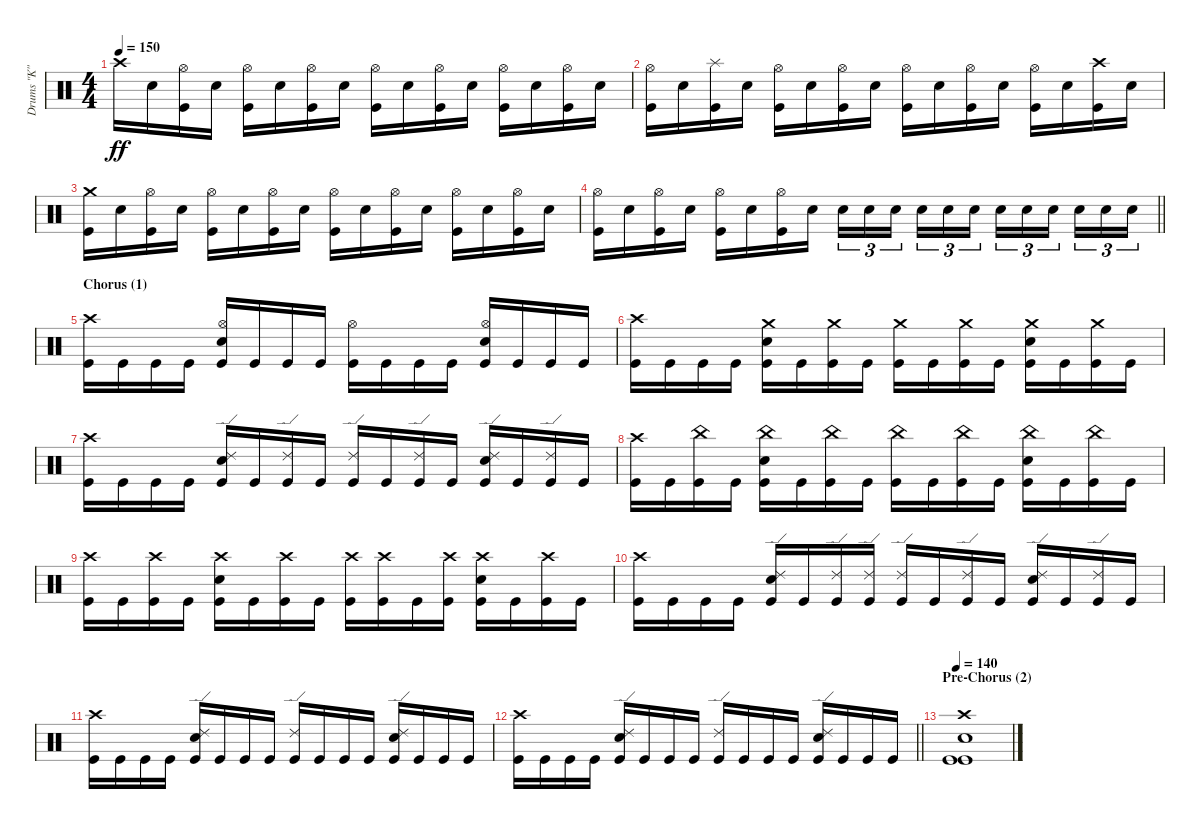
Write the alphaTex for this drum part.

\track ("Drums \"K\"" "Drums \"K\"") {instrument percussion}
\staff {score}
\articulation defaults
\ts (4 4)
\tempo 150
\clef neutral
\ks c "Crash high (hit)".16{dy ff} "Snare (hit) 2".16
("Hi-Hat (open)" "Kick (hit)").16 "Snare (hit) 2".16 ("Hi-Hat (open)" "Kick (hit)").16 "Snare (hit) 2".16 ("Hi-Hat (open)" "Kick (hit)").16 "Snare (hit) 2".16 ("Hi-Hat (open)" "Kick (hit)").16 "Snare (hit) 2".16 ("Hi-Hat (open)" "Kick (hit)").16 "Snare (hit) 2".16 ("Hi-Hat (open)" "Kick (hit)").16 "Snare (hit) 2".16 ("Hi-Hat (open)" "Kick (hit)").16 "Snare (hit) 2".16 |
("Hi-Hat (open)" "Kick (hit)").16 "Snare (hit) 2".16 ("Splash (hit)" "Kick (hit)").16 "Snare (hit) 2".16 ("Hi-Hat (open)" "Kick (hit)").16 "Snare (hit) 2".16 ("Hi-Hat (open)" "Kick (hit)").16 "Snare (hit) 2".16 ("Hi-Hat (open)" "Kick (hit)").16 "Snare (hit) 2".16 ("Hi-Hat (open)" "Kick (hit)").16 "Snare (hit) 2".16 ("Hi-Hat (open)" "Kick (hit)").16 "Snare (hit) 2".16 ("Crash high (hit)" "Kick (hit)").16 "Snare (hit) 2".16 |
("Crash medium (hit)" "Kick (hit)").16 "Snare (hit) 2".16 ("Hi-Hat (open)" "Kick (hit)").16 "Snare (hit) 2".16 ("Hi-Hat (open)" "Kick (hit)").16 "Snare (hit) 2".16 ("Hi-Hat (open)" "Kick (hit)").16 "Snare (hit) 2".16 ("Hi-Hat (open)" "Kick (hit)").16 "Snare (hit) 2".16 ("Hi-Hat (open)" "Kick (hit)").16 "Snare (hit) 2".16 ("Hi-Hat (open)" "Kick (hit)").16 "Snare (hit) 2".16 ("Hi-Hat (open)" "Kick (hit)").16 "Snare (hit) 2".16 |
\barLineRight lightlight
("Hi-Hat (open)" "Kick (hit)").16 "Snare (hit) 2".16 ("Hi-Hat (open)" "Kick (hit)").16 "Snare (hit) 2".16 ("Hi-Hat (open)" "Kick (hit)").16 "Snare (hit) 2".16 ("Hi-Hat (open)" "Kick (hit)").16 "Snare (hit) 2".16 "Snare (hit) 2".16{tu (3 2)} "Snare (hit) 2".16{tu (3 2)} "Snare (hit) 2".16{tu (3 2) beam splitsecondary} "Snare (hit) 2".16{tu (3 2)} "Snare (hit) 2".16{tu (3 2)} "Snare (hit) 2".16{tu (3 2)} "Snare (hit) 2".16{tu (3 2)} "Snare (hit) 2".16{tu (3 2)} "Snare (hit) 2".16{tu (3 2) beam splitsecondary} "Snare (hit) 2".16{tu (3 2)} "Snare (hit) 2".16{tu (3 2)} "Snare (hit) 2".16{tu (3 2)} |
\section ("" "Chorus (1)")
("Crash high (hit)" "Kick (hit)").16 "Kick (hit)".16 "Kick (hit)".16 "Kick (hit)".16 ("Hi-Hat (open)" "Snare (hit) 2" "Kick (hit)").16 "Kick (hit)".16 "Kick (hit)".16 "Kick (hit)".16 ("Hi-Hat (open)" "Kick (hit)").16 "Kick (hit)".16 "Kick (hit)".16 "Kick (hit)".16 ("Hi-Hat (open)" "Snare (hit) 2" "Kick (hit)").16 "Kick (hit)".16 "Kick (hit)".16 "Kick (hit)".16 |
("Crash high (hit)" "Kick (hit)").16 "Kick (hit)".16 "Kick (hit)".16 "Kick (hit)".16 ("Crash medium (hit)" "Snare (hit) 2" "Kick (hit)").16 "Kick (hit)".16 ("Crash medium (hit)" "Kick (hit)").16 "Kick (hit)".16 ("Crash medium (hit)" "Kick (hit)").16 "Kick (hit)".16 ("Crash medium (hit)" "Kick (hit)").16 "Kick (hit)".16 ("Crash medium (hit)" "Snare (hit) 2" "Kick (hit)").16 "Kick (hit)".16 ("Crash medium (hit)" "Kick (hit)").16 "Kick (hit)".16 |
("Crash high (hit)" "Kick (hit)").16 "Kick (hit)".16 "Kick (hit)".16 "Kick (hit)".16 ("Ride (edge) 2" "Snare (hit) 2" "Kick (hit)").16 "Kick (hit)".16 ("Ride (edge) 2" "Kick (hit)").16 "Kick (hit)".16 ("Ride (edge) 2" "Kick (hit)").16 "Kick (hit)".16 ("Ride (edge) 2" "Kick (hit)").16 "Kick (hit)".16 ("Ride (edge) 2" "Snare (hit) 2" "Kick (hit)").16 "Kick (hit)".16 ("Ride (edge) 2" "Kick (hit)").16 "Kick (hit)".16 |
("Crash high (hit)" "Kick (hit)").16 "Kick (hit)".16 ("China (hit)" "Kick (hit)").16 "Kick (hit)".16 ("China (hit)" "Snare (hit) 2" "Kick (hit)").16 "Kick (hit)".16 ("China (hit)" "Kick (hit)").16 "Kick (hit)".16 ("China (hit)" "Kick (hit)").16 "Kick (hit)".16 ("China (hit)" "Kick (hit)").16 "Kick (hit)".16 ("China (hit)" "Snare (hit) 2" "Kick (hit)").16 "Kick (hit)".16 ("China (hit)" "Kick (hit)").16 "Kick (hit)".16 |
("Crash high (hit)" "Kick (hit)").16 "Kick (hit)".16 ("Crash high (hit)" "Kick (hit)").16 "Kick (hit)".16 ("Crash high (hit)" "Snare (hit) 2" "Kick (hit)").16 "Kick (hit)".16 ("Crash high (hit)" "Kick (hit)").16 "Kick (hit)".16 ("Crash high (hit)" "Kick (hit)").16 ("Crash high (hit)" "Kick (hit)").16 "Kick (hit)".16 ("Crash high (hit)" "Kick (hit)").16 ("Crash high (hit)" "Snare (hit) 2" "Kick (hit)").16 "Kick (hit)".16 ("Crash high (hit)" "Kick (hit)").16 "Kick (hit)".16 |
("Crash high (hit)" "Kick (hit)").16 "Kick (hit)".16 "Kick (hit)".16 "Kick (hit)".16 ("Ride (edge) 2" "Snare (hit) 2" "Kick (hit)").16 "Kick (hit)".16 ("Ride (edge) 2" "Kick (hit)").16 ("Ride (edge) 2" "Kick (hit)").16 ("Ride (edge) 2" "Kick (hit)").16 "Kick (hit)".16 ("Ride (edge) 2" "Kick (hit)").16 "Kick (hit)".16 ("Ride (edge) 2" "Snare (hit) 2" "Kick (hit)").16 "Kick (hit)".16 ("Ride (edge) 2" "Kick (hit)").16 "Kick (hit)".16 |
("Crash high (hit)" "Kick (hit)").16 "Kick (hit)".16 "Kick (hit)".16 "Kick (hit)".16 ("Ride (edge) 2" "Snare (hit) 2" "Kick (hit)").16 "Kick (hit)".16 "Kick (hit)".16 "Kick (hit)".16 ("Ride (edge) 2" "Kick (hit)").16 "Kick (hit)".16 "Kick (hit)".16 "Kick (hit)".16 ("Ride (edge) 2" "Snare (hit) 2" "Kick (hit)").16 "Kick (hit)".16 "Kick (hit)".16 "Kick (hit)".16 |
\barLineRight lightlight
("Crash high (hit)" "Kick (hit)").16 "Kick (hit)".16 "Kick (hit)".16 "Kick (hit)".16 ("Ride (edge) 2" "Snare (hit) 2" "Kick (hit)").16 "Kick (hit)".16 "Kick (hit)".16 "Kick (hit)".16 ("Ride (edge) 2" "Kick (hit)").16 "Kick (hit)".16 "Kick (hit)".16 "Kick (hit)".16 ("Ride (edge) 2" "Snare (hit) 2" "Kick (hit)").16 "Kick (hit)".16 "Kick (hit)".16 "Kick (hit)".16 |
\section ("" "Pre-Chorus (2)")
\tempo 140
("Crash high (hit)" "Snare (hit) 2" "Kick (hit)" "Kick (hit)").1
